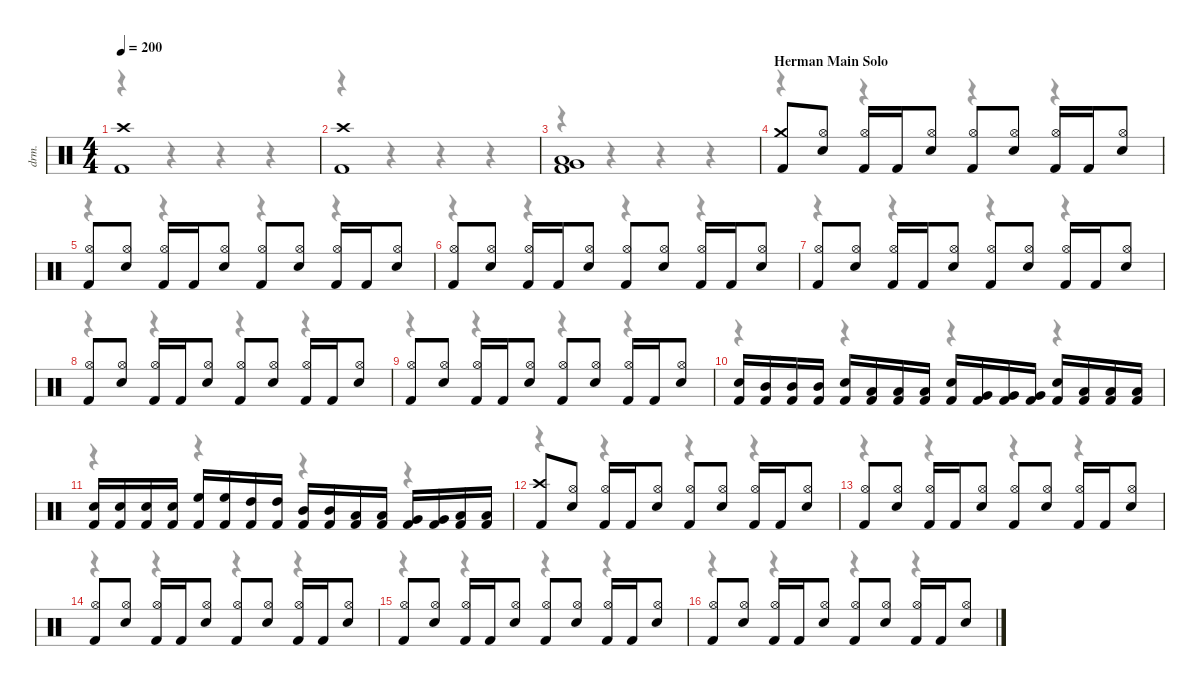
\defaultSystemsLayout 4
\hideDynamics
\bracketExtendMode nobrackets
\otherSystemsTrackNameOrientation horizontal
\track ("David Mackintosh (Drums)" "drm.") {instrument percussion}
\staff {score}
\articulation defaults
\voice
\ts (4 4)
\tempo 200
\clef neutral
\ks c
("Kick (hit) 2" "Crash high (hit)").1{dy f} |
("Kick (hit) 2" "Crash high (hit)").1 |
("Kick (hit) 2" "Very Low Tom (hit)" "Low Floor Tom (hit)").1 |
\section ("" "Herman Main Solo")
("Kick (hit) 2" "Crash medium (hit)").8 ("Snare (hit) 2" "Hi-Hat (open)").8 ("Kick (hit) 2" "Hi-Hat (open)").16 "Kick (hit) 2".16 ("Snare (hit) 2" "Hi-Hat (open)").8 ("Kick (hit) 2" "Hi-Hat (open)").8 ("Snare (hit) 2" "Hi-Hat (open)").8 ("Kick (hit) 2" "Hi-Hat (open)").16 "Kick (hit) 2".16 ("Snare (hit) 2" "Hi-Hat (open)").8 |
("Kick (hit) 2" "Hi-Hat (open)").8 ("Snare (hit) 2" "Hi-Hat (open)").8 ("Kick (hit) 2" "Hi-Hat (open)").16 "Kick (hit) 2".16 ("Snare (hit) 2" "Hi-Hat (open)").8 ("Kick (hit) 2" "Hi-Hat (open)").8 ("Snare (hit) 2" "Hi-Hat (open)").8 ("Kick (hit) 2" "Hi-Hat (open)").16 "Kick (hit) 2".16 ("Snare (hit) 2" "Hi-Hat (open)").8 |
("Kick (hit) 2" "Hi-Hat (open)").8 ("Snare (hit) 2" "Hi-Hat (open)").8 ("Kick (hit) 2" "Hi-Hat (open)").16 "Kick (hit) 2".16 ("Snare (hit) 2" "Hi-Hat (open)").8 ("Kick (hit) 2" "Hi-Hat (open)").8 ("Snare (hit) 2" "Hi-Hat (open)").8 ("Kick (hit) 2" "Hi-Hat (open)").16 "Kick (hit) 2".16 ("Snare (hit) 2" "Hi-Hat (open)").8 |
("Kick (hit) 2" "Hi-Hat (open)").8 ("Snare (hit) 2" "Hi-Hat (open)").8 ("Kick (hit) 2" "Hi-Hat (open)").16 "Kick (hit) 2".16 ("Snare (hit) 2" "Hi-Hat (open)").8 ("Kick (hit) 2" "Hi-Hat (open)").8 ("Snare (hit) 2" "Hi-Hat (open)").8 ("Kick (hit) 2" "Hi-Hat (open)").16 "Kick (hit) 2".16 ("Snare (hit) 2" "Hi-Hat (open)").8 |
("Kick (hit) 2" "Hi-Hat (open)").8 ("Snare (hit) 2" "Hi-Hat (open)").8 ("Kick (hit) 2" "Hi-Hat (open)").16 "Kick (hit) 2".16 ("Snare (hit) 2" "Hi-Hat (open)").8 ("Kick (hit) 2" "Hi-Hat (open)").8 ("Snare (hit) 2" "Hi-Hat (open)").8 ("Kick (hit) 2" "Hi-Hat (open)").16 "Kick (hit) 2".16 ("Snare (hit) 2" "Hi-Hat (open)").8 |
("Kick (hit) 2" "Hi-Hat (open)").8 ("Snare (hit) 2" "Hi-Hat (open)").8 ("Kick (hit) 2" "Hi-Hat (open)").16 "Kick (hit) 2".16 ("Snare (hit) 2" "Hi-Hat (open)").8 ("Kick (hit) 2" "Hi-Hat (open)").8 ("Snare (hit) 2" "Hi-Hat (open)").8 ("Kick (hit) 2" "Hi-Hat (open)").16 "Kick (hit) 2".16 ("Snare (hit) 2" "Hi-Hat (open)").8 |
("Kick (hit) 2" "Snare (hit) 2").16 ("Kick (hit) 2" "Mid Tom (hit)").16 ("Kick (hit) 2" "Mid Tom (hit)").16 ("Kick (hit) 2" "Mid Tom (hit)").16 ("Kick (hit) 2" "Snare (hit) 2").16 ("Kick (hit) 2" "Low Tom (hit)").16 ("Kick (hit) 2" "Low Tom (hit)").16 ("Kick (hit) 2" "Low Tom (hit)").16 ("Kick (hit) 2" "Snare (hit) 2").16 ("Kick (hit) 2" "Very Low Tom (hit)").16 ("Kick (hit) 2" "Very Low Tom (hit)").16 ("Kick (hit) 2" "Very Low Tom (hit)").16 ("Kick (hit) 2" "Snare (hit) 2").16 ("Kick (hit) 2" "Low Floor Tom (hit)").16 ("Kick (hit) 2" "Low Floor Tom (hit)").16 ("Kick (hit) 2" "Low Floor Tom (hit)").16 |
("Kick (hit) 2" "Snare (hit) 2").16 ("Kick (hit) 2" "Snare (hit) 2").16 ("Kick (hit) 2" "Snare (hit) 2").16 ("Kick (hit) 2" "Snare (hit) 2").16 ("Kick (hit) 2" "High Floor Tom (hit)").16 ("Kick (hit) 2" "High Floor Tom (hit)").16 ("Kick (hit) 2" "High Tom (hit)").16 ("Kick (hit) 2" "High Tom (hit)").16 ("Kick (hit) 2" "Mid Tom (hit)").16 ("Kick (hit) 2" "Mid Tom (hit)").16 ("Kick (hit) 2" "Low Tom (hit)").16 ("Kick (hit) 2" "Low Tom (hit)").16 ("Kick (hit) 2" "Very Low Tom (hit)").16 ("Kick (hit) 2" "Very Low Tom (hit)").16 ("Kick (hit) 2" "Low Floor Tom (hit)").16 ("Kick (hit) 2" "Low Floor Tom (hit)").16 |
("Kick (hit) 2" "Crash high (hit)").8 ("Snare (hit) 2" "Hi-Hat (open)").8 ("Kick (hit) 2" "Hi-Hat (open)").16 "Kick (hit) 2".16 ("Snare (hit) 2" "Hi-Hat (open)").8 ("Kick (hit) 2" "Hi-Hat (open)").8 ("Snare (hit) 2" "Hi-Hat (open)").8 ("Kick (hit) 2" "Hi-Hat (open)").16 "Kick (hit) 2".16 ("Snare (hit) 2" "Hi-Hat (open)").8 |
("Kick (hit) 2" "Hi-Hat (open)").8 ("Snare (hit) 2" "Hi-Hat (open)").8 ("Kick (hit) 2" "Hi-Hat (open)").16 "Kick (hit) 2".16 ("Snare (hit) 2" "Hi-Hat (open)").8 ("Kick (hit) 2" "Hi-Hat (open)").8 ("Snare (hit) 2" "Hi-Hat (open)").8 ("Kick (hit) 2" "Hi-Hat (open)").16 "Kick (hit) 2".16 ("Snare (hit) 2" "Hi-Hat (open)").8 |
("Kick (hit) 2" "Hi-Hat (open)").8 ("Snare (hit) 2" "Hi-Hat (open)").8 ("Kick (hit) 2" "Hi-Hat (open)").16 "Kick (hit) 2".16 ("Snare (hit) 2" "Hi-Hat (open)").8 ("Kick (hit) 2" "Hi-Hat (open)").8 ("Snare (hit) 2" "Hi-Hat (open)").8 ("Kick (hit) 2" "Hi-Hat (open)").16 "Kick (hit) 2".16 ("Snare (hit) 2" "Hi-Hat (open)").8 |
("Kick (hit) 2" "Hi-Hat (open)").8 ("Snare (hit) 2" "Hi-Hat (open)").8 ("Kick (hit) 2" "Hi-Hat (open)").16 "Kick (hit) 2".16 ("Snare (hit) 2" "Hi-Hat (open)").8 ("Kick (hit) 2" "Hi-Hat (open)").8 ("Snare (hit) 2" "Hi-Hat (open)").8 ("Kick (hit) 2" "Hi-Hat (open)").16 "Kick (hit) 2".16 ("Snare (hit) 2" "Hi-Hat (open)").8 |
("Kick (hit) 2" "Hi-Hat (open)").8 ("Snare (hit) 2" "Hi-Hat (open)").8 ("Kick (hit) 2" "Hi-Hat (open)").16 "Kick (hit) 2".16 ("Snare (hit) 2" "Hi-Hat (open)").8 ("Kick (hit) 2" "Hi-Hat (open)").8 ("Snare (hit) 2" "Hi-Hat (open)").8 ("Kick (hit) 2" "Hi-Hat (open)").16 "Kick (hit) 2".16 ("Snare (hit) 2" "Hi-Hat (open)").8
\voice
\clef neutral
\ottava regular
\simile none
\ks c
r.4{dy mf} r.4 r.4 r.4 |
r.4 r.4 r.4 r.4 |
r.4 r.4 r.4 r.4 |
r.4 r.4 r.4 r.4 |
r.4 r.4 r.4 r.4 |
r.4 r.4 r.4 r.4 |
r.4 r.4 r.4 r.4 |
r.4 r.4 r.4 r.4 |
r.4 r.4 r.4 r.4 |
r.4 r.4 r.4 r.4 |
r.4 r.4 r.4 r.4 |
r.4 r.4 r.4 r.4 |
r.4 r.4 r.4 r.4 |
r.4 r.4 r.4 r.4 |
r.4 r.4 r.4 r.4 |
r.4 r.4 r.4 r.4
